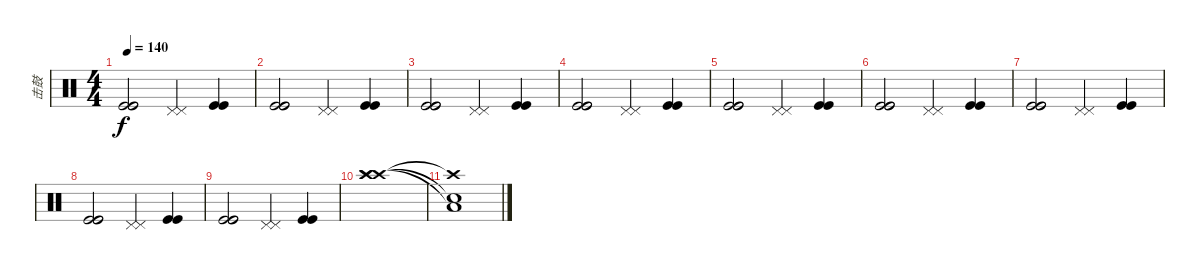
\track ("击鼓" "击鼓") {instrument percussion}
\staff {score}
\articulation defaults
\ts (4 4)
\tempo 140
\clef neutral
\ks c
("Kick (hit)" "Kick (hit)" "Kick (hit)").2{dy f} ("Pedal Hi-Hat (hit)" "Pedal Hi-Hat (hit)").4 ("Kick (hit)" "Kick (hit)").4 |
("Kick (hit)" "Kick (hit)" "Kick (hit)").2 ("Pedal Hi-Hat (hit)" "Pedal Hi-Hat (hit)").4 ("Kick (hit)" "Kick (hit)").4 |
("Kick (hit)" "Kick (hit)" "Kick (hit)").2 ("Pedal Hi-Hat (hit)" "Pedal Hi-Hat (hit)").4 ("Kick (hit)" "Kick (hit)").4 |
("Kick (hit)" "Kick (hit)" "Kick (hit)").2 ("Pedal Hi-Hat (hit)" "Pedal Hi-Hat (hit)").4 ("Kick (hit)" "Kick (hit)").4 |
("Kick (hit)" "Kick (hit)" "Kick (hit)").2 ("Pedal Hi-Hat (hit)" "Pedal Hi-Hat (hit)").4 ("Kick (hit)" "Kick (hit)").4 |
("Kick (hit)" "Kick (hit)" "Kick (hit)").2 ("Pedal Hi-Hat (hit)" "Pedal Hi-Hat (hit)").4 ("Kick (hit)" "Kick (hit)").4 |
("Kick (hit)" "Kick (hit)" "Kick (hit)").2 ("Pedal Hi-Hat (hit)" "Pedal Hi-Hat (hit)").4 ("Kick (hit)" "Kick (hit)").4 |
("Kick (hit)" "Kick (hit)" "Kick (hit)").2 ("Pedal Hi-Hat (hit)" "Pedal Hi-Hat (hit)").4 ("Kick (hit)" "Kick (hit)").4 |
("Kick (hit)" "Kick (hit)" "Kick (hit)").2 ("Pedal Hi-Hat (hit)" "Pedal Hi-Hat (hit)").4 ("Kick (hit)" "Kick (hit)").4 |
("Crash high (hit)" "Crash high (hit)" "Crash high (hit)").1 |
("Crash high (hit)"{t} "Snare (hit)"{t} "Low Floor Tom (hit)"{t}).1
